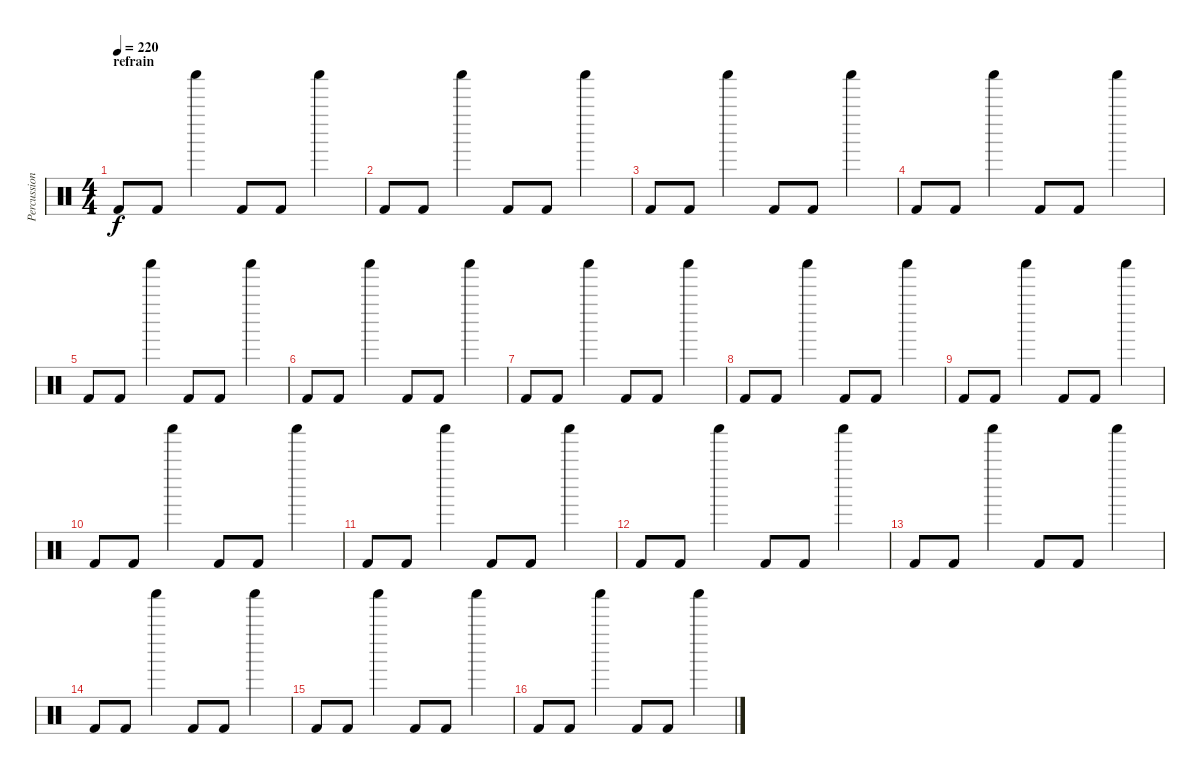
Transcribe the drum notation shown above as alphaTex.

\track ("Percussions" "Percussion") {instrument percussion}
\staff {score}
\articulation defaults
\ts (4 4)
\section ("" "refrain")
\tempo 220
\clef neutral
\ks c "Kick (hit) 2".8{dy f} "Kick (hit) 2".8 "Shaker (hit)".4 "Kick (hit) 2".8 "Kick (hit) 2".8 "Shaker (hit)".4
|
"Kick (hit) 2".8 "Kick (hit) 2".8 "Shaker (hit)".4 "Kick (hit) 2".8 "Kick (hit) 2".8 "Shaker (hit)".4 |
"Kick (hit) 2".8 "Kick (hit) 2".8 "Shaker (hit)".4 "Kick (hit) 2".8 "Kick (hit) 2".8 "Shaker (hit)".4 |
"Kick (hit) 2".8 "Kick (hit) 2".8 "Shaker (hit)".4 "Kick (hit) 2".8 "Kick (hit) 2".8 "Shaker (hit)".4 |
"Kick (hit) 2".8 "Kick (hit) 2".8 "Shaker (hit)".4 "Kick (hit) 2".8 "Kick (hit) 2".8 "Shaker (hit)".4 |
"Kick (hit) 2".8 "Kick (hit) 2".8 "Shaker (hit)".4 "Kick (hit) 2".8 "Kick (hit) 2".8 "Shaker (hit)".4 |
"Kick (hit) 2".8 "Kick (hit) 2".8 "Shaker (hit)".4 "Kick (hit) 2".8 "Kick (hit) 2".8 "Shaker (hit)".4 |
"Kick (hit) 2".8 "Kick (hit) 2".8 "Shaker (hit)".4 "Kick (hit) 2".8 "Kick (hit) 2".8 "Shaker (hit)".4 |
"Kick (hit) 2".8 "Kick (hit) 2".8 "Shaker (hit)".4 "Kick (hit) 2".8 "Kick (hit) 2".8 "Shaker (hit)".4 |
"Kick (hit) 2".8 "Kick (hit) 2".8 "Shaker (hit)".4 "Kick (hit) 2".8 "Kick (hit) 2".8 "Shaker (hit)".4 |
"Kick (hit) 2".8 "Kick (hit) 2".8 "Shaker (hit)".4 "Kick (hit) 2".8 "Kick (hit) 2".8 "Shaker (hit)".4 |
"Kick (hit) 2".8 "Kick (hit) 2".8 "Shaker (hit)".4 "Kick (hit) 2".8 "Kick (hit) 2".8 "Shaker (hit)".4 |
"Kick (hit) 2".8 "Kick (hit) 2".8 "Shaker (hit)".4 "Kick (hit) 2".8 "Kick (hit) 2".8 "Shaker (hit)".4 |
"Kick (hit) 2".8 "Kick (hit) 2".8 "Shaker (hit)".4 "Kick (hit) 2".8 "Kick (hit) 2".8 "Shaker (hit)".4 |
"Kick (hit) 2".8 "Kick (hit) 2".8 "Shaker (hit)".4 "Kick (hit) 2".8 "Kick (hit) 2".8 "Shaker (hit)".4 |
"Kick (hit) 2".8 "Kick (hit) 2".8 "Shaker (hit)".4 "Kick (hit) 2".8 "Kick (hit) 2".8 "Shaker (hit)".4
